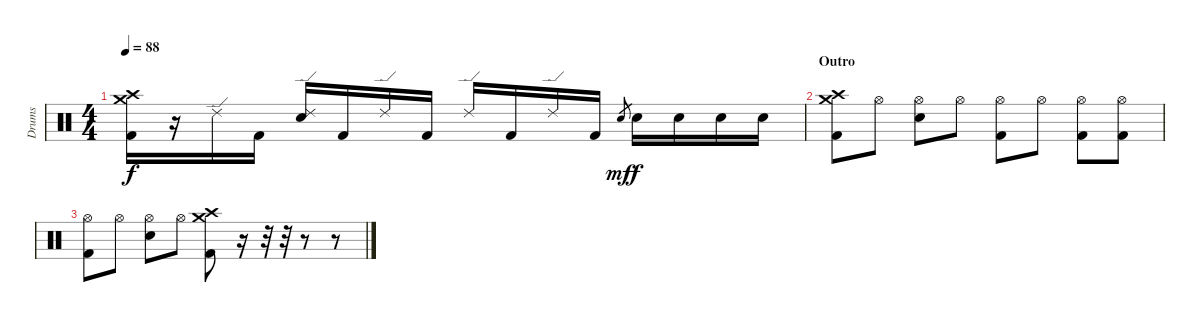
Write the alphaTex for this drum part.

\track ("Drums" "Drums") {instrument percussion}
\staff {score}
\articulation defaults
\ts (4 4)
\tempo 88
\clef neutral
\ks c
("Crash medium (hit)" "Crash high (hit)" "Kick (hit) 2").16{dy f} r.16 "Ride (edge) 2".16 "Kick (hit) 2".16 ("Ride (edge) 2" "Electric Snare (hit)").16 "Kick (hit) 2".16 "Ride (edge) 2".16 "Kick (hit) 2".16 "Ride (edge) 2".16 "Kick (hit) 2".16 "Ride (edge) 2".16 "Kick (hit) 2".16 "Electric Snare (hit)".8{gr dy mf} "Electric Snare (hit)".16{dy f} "Electric Snare (hit)".16 "Electric Snare (hit)".16 "Electric Snare (hit)".16 |
\section ("" "Outro")
("Crash high (hit)" "Crash medium (hit)" "Kick (hit) 2").8 "Hi-Hat (open)".8 ("Hi-Hat (open)" "Electric Snare (hit)").8 "Hi-Hat (open)".8 ("Hi-Hat (open)" "Kick (hit) 2").8 "Hi-Hat (open)".8 ("Hi-Hat (open)" "Kick (hit) 2").8 ("Hi-Hat (open)" "Kick (hit) 2").8 |
("Hi-Hat (open)" "Kick (hit) 2").8 "Hi-Hat (open)".8 ("Hi-Hat (open)" "Electric Snare (hit)").8 "Hi-Hat (open)".8 ("Crash high (hit)" "Crash medium (hit)" "Kick (hit) 2").8 r.16 r.32 r.32 r.8 r.8
